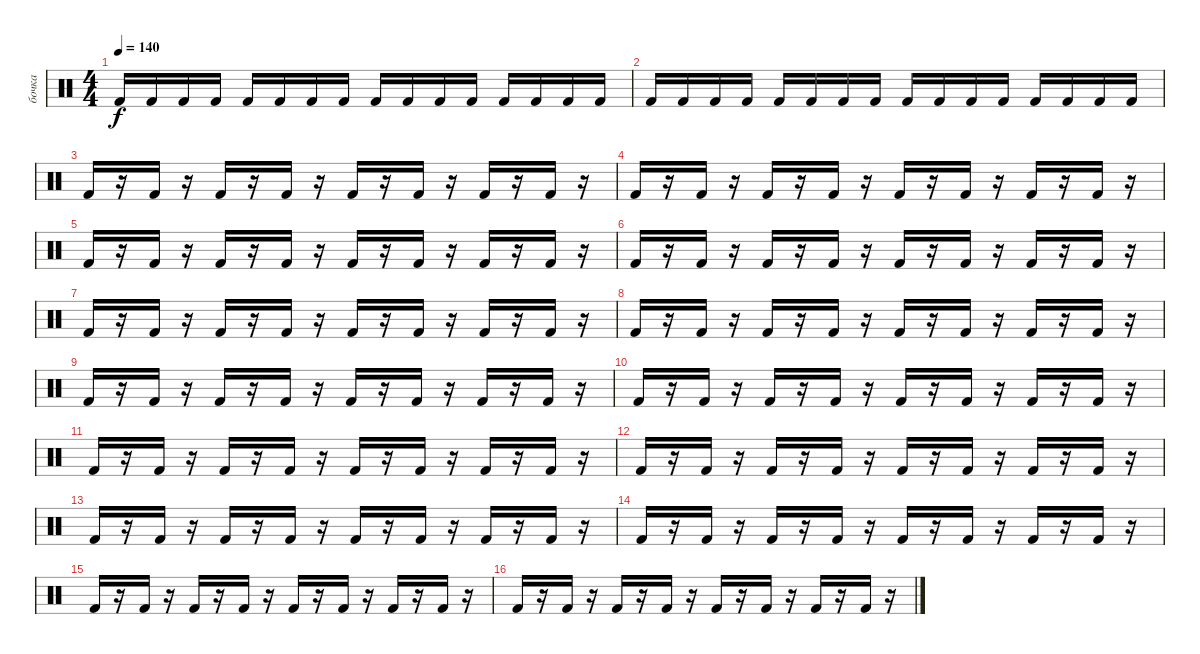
\track ("бочка" "бочка") {mute instrument percussion}
\staff {score}
\articulation defaults
\ts (4 4)
\tempo 140
\clef neutral
\ks c "Kick (hit) 2".16{dy f} "Kick (hit) 2".16 "Kick (hit) 2".16 "Kick (hit) 2".16 "Kick (hit) 2".16 "Kick (hit) 2".16 "Kick (hit) 2".16 "Kick (hit) 2".16 "Kick (hit) 2".16 "Kick (hit) 2".16 "Kick (hit) 2".16 "Kick (hit) 2".16 "Kick (hit) 2".16 "Kick (hit) 2".16 "Kick (hit) 2".16 "Kick (hit) 2".16
|
"Kick (hit) 2".16 "Kick (hit) 2".16 "Kick (hit) 2".16 "Kick (hit) 2".16 "Kick (hit) 2".16 "Kick (hit) 2".16 "Kick (hit) 2".16 "Kick (hit) 2".16 "Kick (hit) 2".16 "Kick (hit) 2".16 "Kick (hit) 2".16 "Kick (hit) 2".16 "Kick (hit) 2".16 "Kick (hit) 2".16 "Kick (hit) 2".16 "Kick (hit) 2".16 |
"Kick (hit) 2".16 r.16 "Kick (hit) 2".16 r.16 "Kick (hit) 2".16 r.16 "Kick (hit) 2".16 r.16 "Kick (hit) 2".16 r.16 "Kick (hit) 2".16 r.16 "Kick (hit) 2".16 r.16 "Kick (hit) 2".16 r.16 |
"Kick (hit) 2".16 r.16 "Kick (hit) 2".16 r.16 "Kick (hit) 2".16 r.16 "Kick (hit) 2".16 r.16 "Kick (hit) 2".16 r.16 "Kick (hit) 2".16 r.16 "Kick (hit) 2".16 r.16 "Kick (hit) 2".16 r.16 |
"Kick (hit) 2".16 r.16 "Kick (hit) 2".16 r.16 "Kick (hit) 2".16 r.16 "Kick (hit) 2".16 r.16 "Kick (hit) 2".16 r.16 "Kick (hit) 2".16 r.16 "Kick (hit) 2".16 r.16 "Kick (hit) 2".16 r.16 |
"Kick (hit) 2".16 r.16 "Kick (hit) 2".16 r.16 "Kick (hit) 2".16 r.16 "Kick (hit) 2".16 r.16 "Kick (hit) 2".16 r.16 "Kick (hit) 2".16 r.16 "Kick (hit) 2".16 r.16 "Kick (hit) 2".16 r.16 |
"Kick (hit) 2".16 r.16 "Kick (hit) 2".16 r.16 "Kick (hit) 2".16 r.16 "Kick (hit) 2".16 r.16 "Kick (hit) 2".16 r.16 "Kick (hit) 2".16 r.16 "Kick (hit) 2".16 r.16 "Kick (hit) 2".16 r.16 |
"Kick (hit) 2".16 r.16 "Kick (hit) 2".16 r.16 "Kick (hit) 2".16 r.16 "Kick (hit) 2".16 r.16 "Kick (hit) 2".16 r.16 "Kick (hit) 2".16 r.16 "Kick (hit) 2".16 r.16 "Kick (hit) 2".16 r.16 |
"Kick (hit) 2".16 r.16 "Kick (hit) 2".16 r.16 "Kick (hit) 2".16 r.16 "Kick (hit) 2".16 r.16 "Kick (hit) 2".16 r.16 "Kick (hit) 2".16 r.16 "Kick (hit) 2".16 r.16 "Kick (hit) 2".16 r.16 |
"Kick (hit) 2".16 r.16 "Kick (hit) 2".16 r.16 "Kick (hit) 2".16 r.16 "Kick (hit) 2".16 r.16 "Kick (hit) 2".16 r.16 "Kick (hit) 2".16 r.16 "Kick (hit) 2".16 r.16 "Kick (hit) 2".16 r.16 |
"Kick (hit) 2".16 r.16 "Kick (hit) 2".16 r.16 "Kick (hit) 2".16 r.16 "Kick (hit) 2".16 r.16 "Kick (hit) 2".16 r.16 "Kick (hit) 2".16 r.16 "Kick (hit) 2".16 r.16 "Kick (hit) 2".16 r.16 |
"Kick (hit) 2".16 r.16 "Kick (hit) 2".16 r.16 "Kick (hit) 2".16 r.16 "Kick (hit) 2".16 r.16 "Kick (hit) 2".16 r.16 "Kick (hit) 2".16 r.16 "Kick (hit) 2".16 r.16 "Kick (hit) 2".16 r.16 |
"Kick (hit) 2".16 r.16 "Kick (hit) 2".16 r.16 "Kick (hit) 2".16 r.16 "Kick (hit) 2".16 r.16 "Kick (hit) 2".16 r.16 "Kick (hit) 2".16 r.16 "Kick (hit) 2".16 r.16 "Kick (hit) 2".16 r.16 |
"Kick (hit) 2".16 r.16 "Kick (hit) 2".16 r.16 "Kick (hit) 2".16 r.16 "Kick (hit) 2".16 r.16 "Kick (hit) 2".16 r.16 "Kick (hit) 2".16 r.16 "Kick (hit) 2".16 r.16 "Kick (hit) 2".16 r.16 |
"Kick (hit) 2".16 r.16 "Kick (hit) 2".16 r.16 "Kick (hit) 2".16 r.16 "Kick (hit) 2".16 r.16 "Kick (hit) 2".16 r.16 "Kick (hit) 2".16 r.16 "Kick (hit) 2".16 r.16 "Kick (hit) 2".16 r.16 |
"Kick (hit) 2".16 r.16 "Kick (hit) 2".16 r.16 "Kick (hit) 2".16 r.16 "Kick (hit) 2".16 r.16 "Kick (hit) 2".16 r.16 "Kick (hit) 2".16 r.16 "Kick (hit) 2".16 r.16 "Kick (hit) 2".16 r.16
